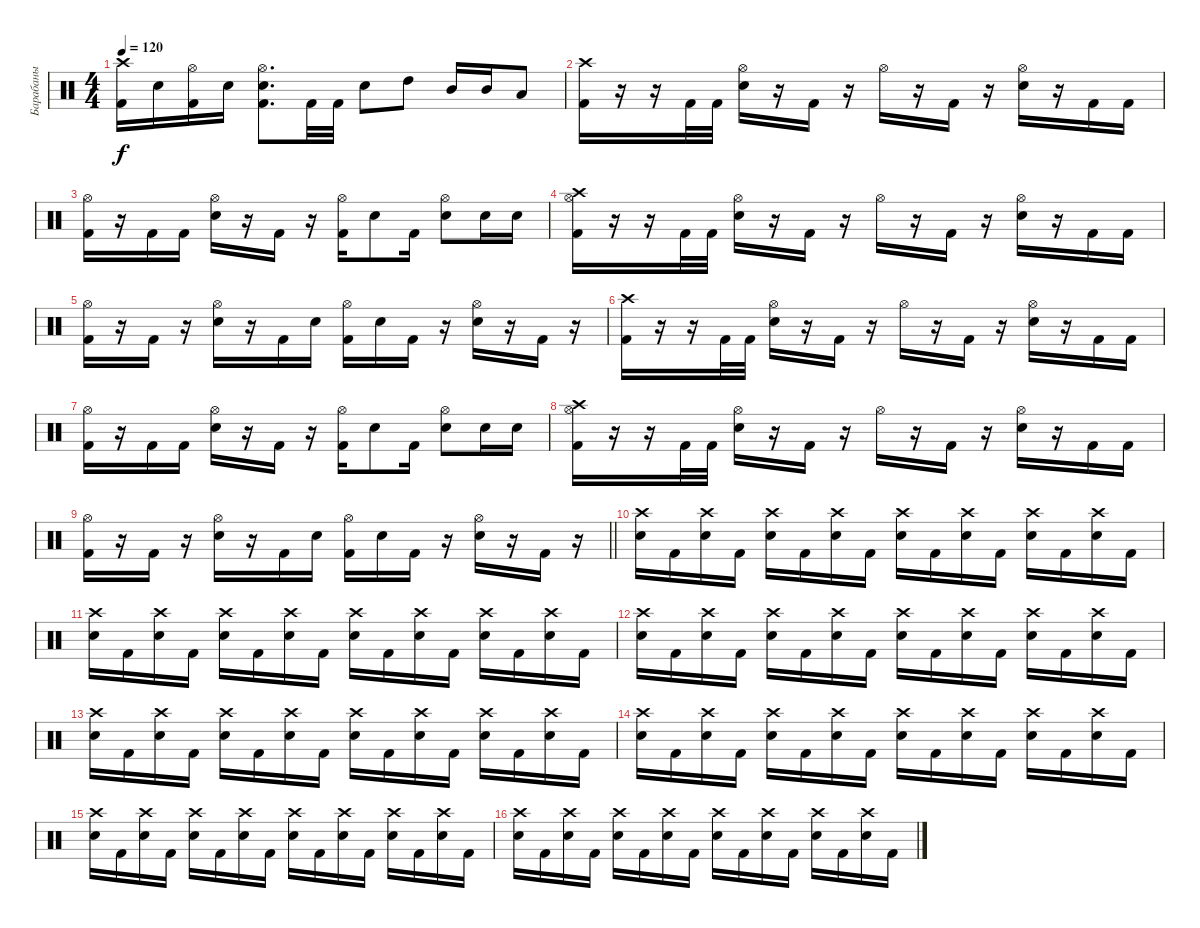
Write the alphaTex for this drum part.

\track ("Барабаны" "Барабаны") {instrument percussion}
\staff {score}
\articulation defaults
\ts (4 4)
\tempo 120
\clef neutral
\ks c
("Crash high (hit)" "Kick (hit) 2").16{dy f} "Electric Snare (hit)".16 ("Hi-Hat (open)" "Kick (hit) 2").16 "Electric Snare (hit)".16 ("Hi-Hat (open)" "Electric Snare (hit)" "Kick (hit) 2").8{d} "Kick (hit) 2".32 "Kick (hit) 2".32 "Electric Snare (hit)".8 "High Tom (hit)".8 "Mid Tom (hit)".16 "Mid Tom (hit)".16 "Low Tom (hit)".8 |
("Crash high (hit)" "Kick (hit) 2").16 r.16 r.16 "Kick (hit) 2".32 "Kick (hit) 2".32 ("Hi-Hat (open)" "Electric Snare (hit)").16 r.16 "Kick (hit) 2".16 r.16 "Hi-Hat (open)".16 r.16 "Kick (hit) 2".16 r.16 ("Hi-Hat (open)" "Electric Snare (hit)").16 r.16 "Kick (hit) 2".16 "Kick (hit) 2".16 |
("Hi-Hat (open)" "Kick (hit) 2").16 r.16 "Kick (hit) 2".16 "Kick (hit) 2".16 ("Hi-Hat (open)" "Electric Snare (hit)").16 r.16 "Kick (hit) 2".16 r.16 ("Hi-Hat (open)" "Kick (hit) 2").16 "Electric Snare (hit)".8 "Kick (hit) 2".16 ("Hi-Hat (open)" "Electric Snare (hit)").8 "Electric Snare (hit)".16 "Electric Snare (hit)".16 |
("Crash high (hit)" "Hi-Hat (open)" "Kick (hit) 2").16 r.16 r.16 "Kick (hit) 2".32 "Kick (hit) 2".32 ("Hi-Hat (open)" "Electric Snare (hit)").16 r.16 "Kick (hit) 2".16 r.16 "Hi-Hat (open)".16 r.16 "Kick (hit) 2".16 r.16 ("Hi-Hat (open)" "Electric Snare (hit)").16 r.16 "Kick (hit) 2".16 "Kick (hit) 2".16 |
("Hi-Hat (open)" "Kick (hit) 2").16 r.16 "Kick (hit) 2".16 r.16 ("Hi-Hat (open)" "Electric Snare (hit)").16 r.16 "Kick (hit) 2".16 "Electric Snare (hit)".16 ("Hi-Hat (open)" "Kick (hit) 2").16 "Electric Snare (hit)".16 "Kick (hit) 2".16 r.16 ("Hi-Hat (open)" "Electric Snare (hit)").16 r.16 "Kick (hit) 2".16 r.16 |
("Crash high (hit)" "Kick (hit) 2").16 r.16 r.16 "Kick (hit) 2".32 "Kick (hit) 2".32 ("Hi-Hat (open)" "Electric Snare (hit)").16 r.16 "Kick (hit) 2".16 r.16 "Hi-Hat (open)".16 r.16 "Kick (hit) 2".16 r.16 ("Hi-Hat (open)" "Electric Snare (hit)").16 r.16 "Kick (hit) 2".16 "Kick (hit) 2".16 |
("Hi-Hat (open)" "Kick (hit) 2").16 r.16 "Kick (hit) 2".16 "Kick (hit) 2".16 ("Hi-Hat (open)" "Electric Snare (hit)").16 r.16 "Kick (hit) 2".16 r.16 ("Hi-Hat (open)" "Kick (hit) 2").16 "Electric Snare (hit)".8 "Kick (hit) 2".16 ("Hi-Hat (open)" "Electric Snare (hit)").8 "Electric Snare (hit)".16 "Electric Snare (hit)".16 |
("Crash high (hit)" "Hi-Hat (open)" "Kick (hit) 2").16 r.16 r.16 "Kick (hit) 2".32 "Kick (hit) 2".32 ("Hi-Hat (open)" "Electric Snare (hit)").16 r.16 "Kick (hit) 2".16 r.16 "Hi-Hat (open)".16 r.16 "Kick (hit) 2".16 r.16 ("Hi-Hat (open)" "Electric Snare (hit)").16 r.16 "Kick (hit) 2".16 "Kick (hit) 2".16 |
\barLineRight lightlight
("Hi-Hat (open)" "Kick (hit) 2").16 r.16 "Kick (hit) 2".16 r.16 ("Hi-Hat (open)" "Electric Snare (hit)").16 r.16 "Kick (hit) 2".16 "Electric Snare (hit)".16 ("Hi-Hat (open)" "Kick (hit) 2").16 "Electric Snare (hit)".16 "Kick (hit) 2".16 r.16 ("Hi-Hat (open)" "Electric Snare (hit)").16 r.16 "Kick (hit) 2".16 r.16 |
\section ("" "")
("Crash high (hit)" "Electric Snare (hit)").16 "Kick (hit) 2".16 ("Crash high (hit)" "Electric Snare (hit)").16 "Kick (hit) 2".16 ("Crash high (hit)" "Electric Snare (hit)").16 "Kick (hit) 2".16 ("Crash high (hit)" "Electric Snare (hit)").16 "Kick (hit) 2".16 ("Crash high (hit)" "Electric Snare (hit)").16 "Kick (hit) 2".16 ("Crash high (hit)" "Electric Snare (hit)").16 "Kick (hit) 2".16 ("Crash high (hit)" "Electric Snare (hit)").16 "Kick (hit) 2".16 ("Crash high (hit)" "Electric Snare (hit)").16 "Kick (hit) 2".16 |
("Crash high (hit)" "Electric Snare (hit)").16 "Kick (hit) 2".16 ("Crash high (hit)" "Electric Snare (hit)").16 "Kick (hit) 2".16 ("Crash high (hit)" "Electric Snare (hit)").16 "Kick (hit) 2".16 ("Crash high (hit)" "Electric Snare (hit)").16 "Kick (hit) 2".16 ("Crash high (hit)" "Electric Snare (hit)").16 "Kick (hit) 2".16 ("Crash high (hit)" "Electric Snare (hit)").16 "Kick (hit) 2".16 ("Crash high (hit)" "Electric Snare (hit)").16 "Kick (hit) 2".16 ("Crash high (hit)" "Electric Snare (hit)").16 "Kick (hit) 2".16 |
("Crash high (hit)" "Electric Snare (hit)").16 "Kick (hit) 2".16 ("Crash high (hit)" "Electric Snare (hit)").16 "Kick (hit) 2".16 ("Crash high (hit)" "Electric Snare (hit)").16 "Kick (hit) 2".16 ("Crash high (hit)" "Electric Snare (hit)").16 "Kick (hit) 2".16 ("Crash high (hit)" "Electric Snare (hit)").16 "Kick (hit) 2".16 ("Crash high (hit)" "Electric Snare (hit)").16 "Kick (hit) 2".16 ("Crash high (hit)" "Electric Snare (hit)").16 "Kick (hit) 2".16 ("Crash high (hit)" "Electric Snare (hit)").16 "Kick (hit) 2".16 |
("Crash high (hit)" "Electric Snare (hit)").16 "Kick (hit) 2".16 ("Crash high (hit)" "Electric Snare (hit)").16 "Kick (hit) 2".16 ("Crash high (hit)" "Electric Snare (hit)").16 "Kick (hit) 2".16 ("Crash high (hit)" "Electric Snare (hit)").16 "Kick (hit) 2".16 ("Crash high (hit)" "Electric Snare (hit)").16 "Kick (hit) 2".16 ("Crash high (hit)" "Electric Snare (hit)").16 "Kick (hit) 2".16 ("Crash high (hit)" "Electric Snare (hit)").16 "Kick (hit) 2".16 ("Crash high (hit)" "Electric Snare (hit)").16 "Kick (hit) 2".16 |
("Crash high (hit)" "Electric Snare (hit)").16 "Kick (hit) 2".16 ("Crash high (hit)" "Electric Snare (hit)").16 "Kick (hit) 2".16 ("Crash high (hit)" "Electric Snare (hit)").16 "Kick (hit) 2".16 ("Crash high (hit)" "Electric Snare (hit)").16 "Kick (hit) 2".16 ("Crash high (hit)" "Electric Snare (hit)").16 "Kick (hit) 2".16 ("Crash high (hit)" "Electric Snare (hit)").16 "Kick (hit) 2".16 ("Crash high (hit)" "Electric Snare (hit)").16 "Kick (hit) 2".16 ("Crash high (hit)" "Electric Snare (hit)").16 "Kick (hit) 2".16 |
("Crash high (hit)" "Electric Snare (hit)").16 "Kick (hit) 2".16 ("Crash high (hit)" "Electric Snare (hit)").16 "Kick (hit) 2".16 ("Crash high (hit)" "Electric Snare (hit)").16 "Kick (hit) 2".16 ("Crash high (hit)" "Electric Snare (hit)").16 "Kick (hit) 2".16 ("Crash high (hit)" "Electric Snare (hit)").16 "Kick (hit) 2".16 ("Crash high (hit)" "Electric Snare (hit)").16 "Kick (hit) 2".16 ("Crash high (hit)" "Electric Snare (hit)").16 "Kick (hit) 2".16 ("Crash high (hit)" "Electric Snare (hit)").16 "Kick (hit) 2".16 |
("Crash high (hit)" "Electric Snare (hit)").16 "Kick (hit) 2".16 ("Crash high (hit)" "Electric Snare (hit)").16 "Kick (hit) 2".16 ("Crash high (hit)" "Electric Snare (hit)").16 "Kick (hit) 2".16 ("Crash high (hit)" "Electric Snare (hit)").16 "Kick (hit) 2".16 ("Crash high (hit)" "Electric Snare (hit)").16 "Kick (hit) 2".16 ("Crash high (hit)" "Electric Snare (hit)").16 "Kick (hit) 2".16 ("Crash high (hit)" "Electric Snare (hit)").16 "Kick (hit) 2".16 ("Crash high (hit)" "Electric Snare (hit)").16 "Kick (hit) 2".16
